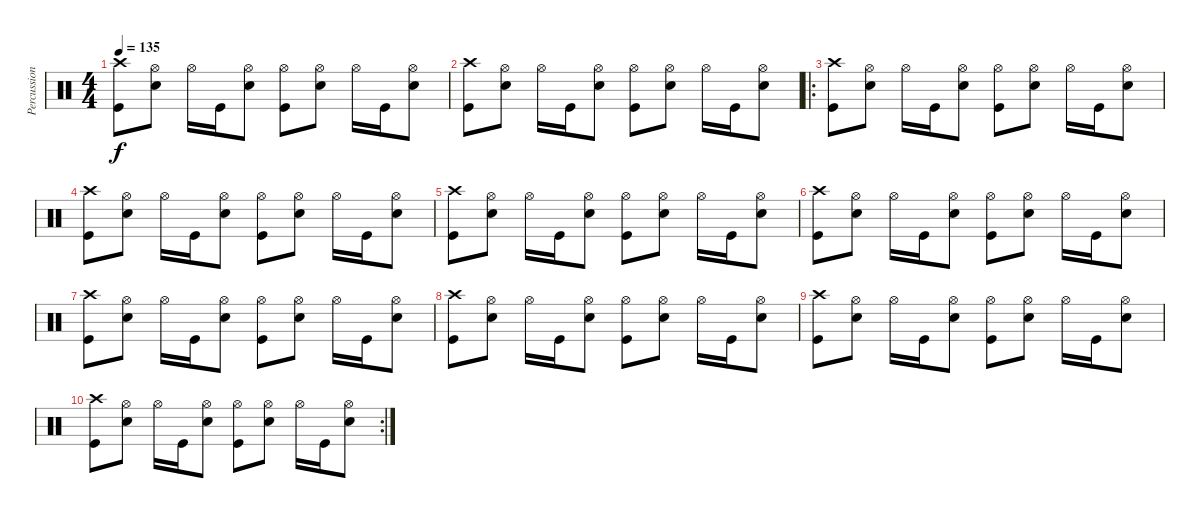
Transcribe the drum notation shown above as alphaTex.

\track ("Percussion" "Percussion") {instrument percussion}
\staff {score}
\articulation defaults
\ts (4 4)
\tempo 135
\clef neutral
\ks c
("Crash high (hit)" "Kick (hit)").8{dy f} ("Hi-Hat (open)" "Snare (hit) 2").8 "Hi-Hat (open)".16 "Kick (hit)".16 ("Hi-Hat (open)" "Snare (hit) 2").8 ("Hi-Hat (open)" "Kick (hit)").8 ("Hi-Hat (open)" "Snare (hit) 2").8 "Hi-Hat (open)".16 "Kick (hit)".16 ("Hi-Hat (open)" "Snare (hit) 2").8 |
("Crash high (hit)" "Kick (hit)").8 ("Hi-Hat (open)" "Snare (hit) 2").8 "Hi-Hat (open)".16 "Kick (hit)".16 ("Hi-Hat (open)" "Snare (hit) 2").8 ("Hi-Hat (open)" "Kick (hit)").8 ("Hi-Hat (open)" "Snare (hit) 2").8 "Hi-Hat (open)".16 "Kick (hit)".16 ("Hi-Hat (open)" "Snare (hit) 2").8 |
\ro
("Crash high (hit)" "Kick (hit)").8 ("Hi-Hat (open)" "Snare (hit) 2").8 "Hi-Hat (open)".16 "Kick (hit)".16 ("Hi-Hat (open)" "Snare (hit) 2").8 ("Hi-Hat (open)" "Kick (hit)").8 ("Hi-Hat (open)" "Snare (hit) 2").8 "Hi-Hat (open)".16 "Kick (hit)".16 ("Hi-Hat (open)" "Snare (hit) 2").8 |
("Crash high (hit)" "Kick (hit)").8 ("Hi-Hat (open)" "Snare (hit) 2").8 "Hi-Hat (open)".16 "Kick (hit)".16 ("Hi-Hat (open)" "Snare (hit) 2").8 ("Hi-Hat (open)" "Kick (hit)").8 ("Hi-Hat (open)" "Snare (hit) 2").8 "Hi-Hat (open)".16 "Kick (hit)".16 ("Hi-Hat (open)" "Snare (hit) 2").8 |
("Crash high (hit)" "Kick (hit)").8 ("Hi-Hat (open)" "Snare (hit) 2").8 "Hi-Hat (open)".16 "Kick (hit)".16 ("Hi-Hat (open)" "Snare (hit) 2").8 ("Hi-Hat (open)" "Kick (hit)").8 ("Hi-Hat (open)" "Snare (hit) 2").8 "Hi-Hat (open)".16 "Kick (hit)".16 ("Hi-Hat (open)" "Snare (hit) 2").8 |
("Crash high (hit)" "Kick (hit)").8 ("Hi-Hat (open)" "Snare (hit) 2").8 "Hi-Hat (open)".16 "Kick (hit)".16 ("Hi-Hat (open)" "Snare (hit) 2").8 ("Hi-Hat (open)" "Kick (hit)").8 ("Hi-Hat (open)" "Snare (hit) 2").8 "Hi-Hat (open)".16 "Kick (hit)".16 ("Hi-Hat (open)" "Snare (hit) 2").8 |
("Crash high (hit)" "Kick (hit)").8 ("Hi-Hat (open)" "Snare (hit) 2").8 "Hi-Hat (open)".16 "Kick (hit)".16 ("Hi-Hat (open)" "Snare (hit) 2").8 ("Hi-Hat (open)" "Kick (hit)").8 ("Hi-Hat (open)" "Snare (hit) 2").8 "Hi-Hat (open)".16 "Kick (hit)".16 ("Hi-Hat (open)" "Snare (hit) 2").8 |
("Crash high (hit)" "Kick (hit)").8 ("Hi-Hat (open)" "Snare (hit) 2").8 "Hi-Hat (open)".16 "Kick (hit)".16 ("Hi-Hat (open)" "Snare (hit) 2").8 ("Hi-Hat (open)" "Kick (hit)").8 ("Hi-Hat (open)" "Snare (hit) 2").8 "Hi-Hat (open)".16 "Kick (hit)".16 ("Hi-Hat (open)" "Snare (hit) 2").8 |
("Crash high (hit)" "Kick (hit)").8 ("Hi-Hat (open)" "Snare (hit) 2").8 "Hi-Hat (open)".16 "Kick (hit)".16 ("Hi-Hat (open)" "Snare (hit) 2").8 ("Hi-Hat (open)" "Kick (hit)").8 ("Hi-Hat (open)" "Snare (hit) 2").8 "Hi-Hat (open)".16 "Kick (hit)".16 ("Hi-Hat (open)" "Snare (hit) 2").8 |
\rc 2
("Crash high (hit)" "Kick (hit)").8 ("Hi-Hat (open)" "Snare (hit) 2").8 "Hi-Hat (open)".16 "Kick (hit)".16 ("Hi-Hat (open)" "Snare (hit) 2").8 ("Hi-Hat (open)" "Kick (hit)").8 ("Hi-Hat (open)" "Snare (hit) 2").8 "Hi-Hat (open)".16 "Kick (hit)".16 ("Hi-Hat (open)" "Snare (hit) 2").8
